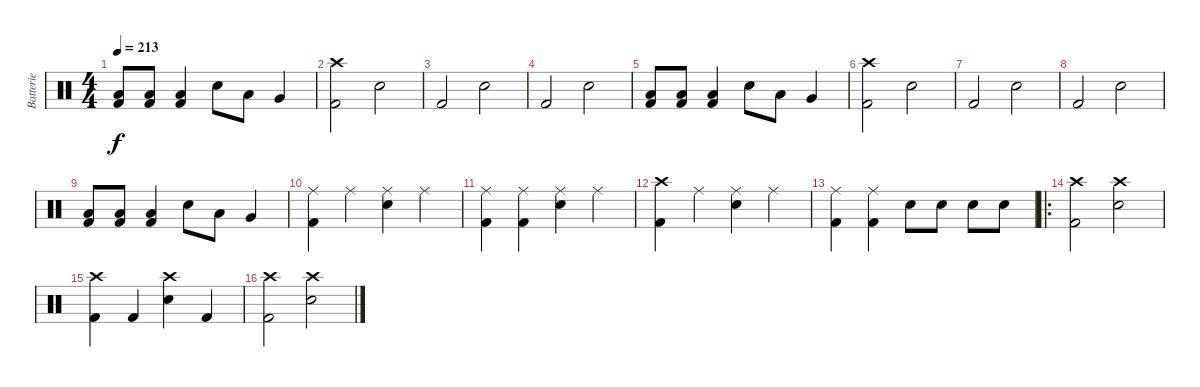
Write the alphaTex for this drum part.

\track ("Batterie" "Batterie") {instrument percussion}
\staff {score}
\articulation defaults
\ts (4 4)
\tempo 213
\clef neutral
\ks c
("Low Floor Tom (hit)" "Kick (hit) 2").8{dy f} ("Low Floor Tom (hit)" "Kick (hit) 2").8 ("Low Floor Tom (hit)" "Kick (hit) 2").4 "Electric Snare (hit)".8 "Low Tom (hit)".8 "Very Low Tom (hit)".4 |
("Crash high (hit)" "Kick (hit) 2").2 "Electric Snare (hit)".2 |
"Kick (hit) 2".2 "Electric Snare (hit)".2 |
"Kick (hit) 2".2 "Electric Snare (hit)".2 |
("Low Floor Tom (hit)" "Kick (hit) 2").8 ("Low Floor Tom (hit)" "Kick (hit) 2").8 ("Low Floor Tom (hit)" "Kick (hit) 2").4 "Electric Snare (hit)".8 "Low Tom (hit)".8 "Very Low Tom (hit)".4 |
("Crash high (hit)" "Kick (hit) 2").2 "Electric Snare (hit)".2 |
"Kick (hit) 2".2 "Electric Snare (hit)".2 |
"Kick (hit) 2".2 "Electric Snare (hit)".2 |
("Low Floor Tom (hit)" "Kick (hit) 2").8 ("Low Floor Tom (hit)" "Kick (hit) 2").8 ("Low Floor Tom (hit)" "Kick (hit) 2").4 "Electric Snare (hit)".8 "Low Tom (hit)".8 "Very Low Tom (hit)".4 |
("Ride (middle)" "Kick (hit) 2").4 "Ride (middle)".4 ("Electric Snare (hit)" "Ride (middle)").4 "Ride (middle)".4 |
("Kick (hit) 2" "Ride (middle)").4 ("Ride (middle)" "Kick (hit) 2").4 ("Electric Snare (hit)" "Ride (middle)").4 "Ride (middle)".4 |
("Kick (hit) 2" "Crash high (hit)").4 "Ride (middle)".4 ("Electric Snare (hit)" "Ride (middle)").4 "Ride (middle)".4 |
("Ride (middle)" "Kick (hit) 2").4 ("Ride (middle)" "Kick (hit) 2").4 "Electric Snare (hit)".8 "Electric Snare (hit)".8 "Electric Snare (hit)".8 "Electric Snare (hit)".8 |
\ro
("Crash high (hit)" "Kick (hit) 2").2 ("Crash high (hit)" "Electric Snare (hit)").2 |
("Crash high (hit)" "Kick (hit) 2").4 "Kick (hit) 2".4 ("Crash high (hit)" "Electric Snare (hit)").4 "Kick (hit) 2".4 |
("Crash high (hit)" "Kick (hit) 2").2 ("Crash high (hit)" "Electric Snare (hit)").2
